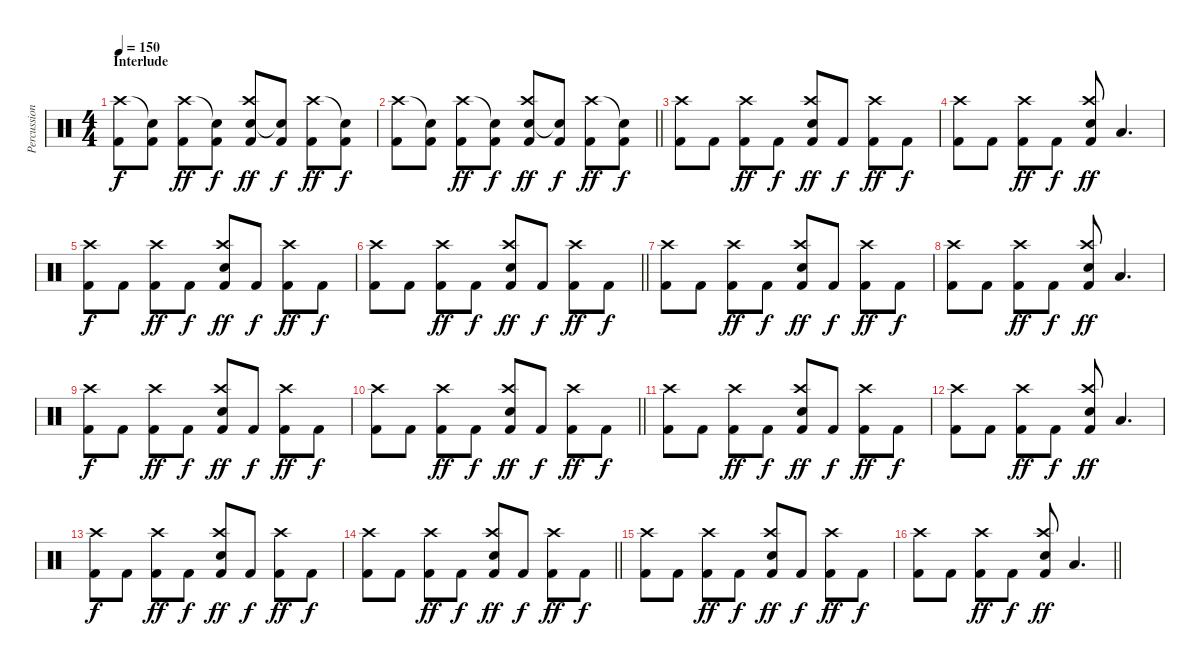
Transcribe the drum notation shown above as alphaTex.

\track ("Percussion" "Percussion") {instrument percussion}
\staff {score}
\articulation defaults
\ts (4 4)
\section ("" "Interlude")
\tempo 150
\clef neutral
\ks c
("Kick (hit) 2" "Crash high (hit)").8{dy f} ("Kick (hit) 2" "Snare (hit)"{t}).8 ("Kick (hit) 2" "Crash high (hit)").8{dy ff} ("Kick (hit) 2" "Snare (hit)"{t}).8{dy f} ("Kick (hit) 2" "Snare (hit) 2" "Crash high (hit)").8{dy ff} ("Kick (hit) 2" "Snare (hit)"{t}).8{dy f} ("Kick (hit) 2" "Crash high (hit)").8{dy ff} ("Kick (hit) 2" "Snare (hit)"{t}).8{dy f} |
\barLineRight lightlight
("Kick (hit) 2" "Crash high (hit)").8 ("Kick (hit) 2" "Snare (hit)"{t}).8 ("Kick (hit) 2" "Crash high (hit)").8{dy ff} ("Kick (hit) 2" "Snare (hit)"{t}).8{dy f} ("Kick (hit) 2" "Snare (hit) 2" "Crash high (hit)").8{dy ff} ("Kick (hit) 2" "Snare (hit)"{t}).8{dy f} ("Kick (hit) 2" "Crash high (hit)").8{dy ff} ("Kick (hit) 2" "Snare (hit)"{t}).8{dy f} |
("Kick (hit) 2" "Crash high (hit)").8 "Kick (hit) 2".8 ("Kick (hit) 2" "Crash high (hit)").8{dy ff} "Kick (hit) 2".8{dy f} ("Kick (hit) 2" "Snare (hit) 2" "Crash high (hit)").8{dy ff} "Kick (hit) 2".8{dy f} ("Kick (hit) 2" "Crash high (hit)").8{dy ff} "Kick (hit) 2".8{dy f} |
("Kick (hit) 2" "Crash high (hit)").8 "Kick (hit) 2".8 ("Kick (hit) 2" "Crash high (hit)").8{dy ff} "Kick (hit) 2".8{dy f} ("Kick (hit) 2" "Snare (hit) 2" "Crash high (hit)").8{dy ff} "Low Floor Tom (hit)".4{d} |
("Kick (hit) 2" "Crash high (hit)").8{dy f} "Kick (hit) 2".8 ("Kick (hit) 2" "Crash high (hit)").8{dy ff} "Kick (hit) 2".8{dy f} ("Kick (hit) 2" "Snare (hit) 2" "Crash high (hit)").8{dy ff} "Kick (hit) 2".8{dy f} ("Kick (hit) 2" "Crash high (hit)").8{dy ff} "Kick (hit) 2".8{dy f} |
\barLineRight lightlight
("Kick (hit) 2" "Crash high (hit)").8 "Kick (hit) 2".8 ("Kick (hit) 2" "Crash high (hit)").8{dy ff} "Kick (hit) 2".8{dy f} ("Kick (hit) 2" "Snare (hit) 2" "Crash high (hit)").8{dy ff} "Kick (hit) 2".8{dy f} ("Kick (hit) 2" "Crash high (hit)").8{dy ff} "Kick (hit) 2".8{dy f} |
("Kick (hit) 2" "Crash high (hit)").8 "Kick (hit) 2".8 ("Kick (hit) 2" "Crash high (hit)").8{dy ff} "Kick (hit) 2".8{dy f} ("Kick (hit) 2" "Snare (hit) 2" "Crash high (hit)").8{dy ff} "Kick (hit) 2".8{dy f} ("Kick (hit) 2" "Crash high (hit)").8{dy ff} "Kick (hit) 2".8{dy f} |
("Kick (hit) 2" "Crash high (hit)").8 "Kick (hit) 2".8 ("Kick (hit) 2" "Crash high (hit)").8{dy ff} "Kick (hit) 2".8{dy f} ("Kick (hit) 2" "Snare (hit) 2" "Crash high (hit)").8{dy ff} "Low Floor Tom (hit)".4{d} |
("Kick (hit) 2" "Crash high (hit)").8{dy f} "Kick (hit) 2".8 ("Kick (hit) 2" "Crash high (hit)").8{dy ff} "Kick (hit) 2".8{dy f} ("Kick (hit) 2" "Snare (hit) 2" "Crash high (hit)").8{dy ff} "Kick (hit) 2".8{dy f} ("Kick (hit) 2" "Crash high (hit)").8{dy ff} "Kick (hit) 2".8{dy f} |
\barLineRight lightlight
("Kick (hit) 2" "Crash high (hit)").8 "Kick (hit) 2".8 ("Kick (hit) 2" "Crash high (hit)").8{dy ff} "Kick (hit) 2".8{dy f} ("Kick (hit) 2" "Snare (hit) 2" "Crash high (hit)").8{dy ff} "Kick (hit) 2".8{dy f} ("Kick (hit) 2" "Crash high (hit)").8{dy ff} "Kick (hit) 2".8{dy f} |
("Kick (hit) 2" "Crash high (hit)").8 "Kick (hit) 2".8 ("Kick (hit) 2" "Crash high (hit)").8{dy ff} "Kick (hit) 2".8{dy f} ("Kick (hit) 2" "Snare (hit) 2" "Crash high (hit)").8{dy ff} "Kick (hit) 2".8{dy f} ("Kick (hit) 2" "Crash high (hit)").8{dy ff} "Kick (hit) 2".8{dy f} |
("Kick (hit) 2" "Crash high (hit)").8 "Kick (hit) 2".8 ("Kick (hit) 2" "Crash high (hit)").8{dy ff} "Kick (hit) 2".8{dy f} ("Kick (hit) 2" "Snare (hit) 2" "Crash high (hit)").8{dy ff} "Low Floor Tom (hit)".4{d} |
("Kick (hit) 2" "Crash high (hit)").8{dy f} "Kick (hit) 2".8 ("Kick (hit) 2" "Crash high (hit)").8{dy ff} "Kick (hit) 2".8{dy f} ("Kick (hit) 2" "Snare (hit) 2" "Crash high (hit)").8{dy ff} "Kick (hit) 2".8{dy f} ("Kick (hit) 2" "Crash high (hit)").8{dy ff} "Kick (hit) 2".8{dy f} |
\barLineRight lightlight
("Kick (hit) 2" "Crash high (hit)").8 "Kick (hit) 2".8 ("Kick (hit) 2" "Crash high (hit)").8{dy ff} "Kick (hit) 2".8{dy f} ("Kick (hit) 2" "Snare (hit) 2" "Crash high (hit)").8{dy ff} "Kick (hit) 2".8{dy f} ("Kick (hit) 2" "Crash high (hit)").8{dy ff} "Kick (hit) 2".8{dy f} |
("Kick (hit) 2" "Crash high (hit)").8 "Kick (hit) 2".8 ("Kick (hit) 2" "Crash high (hit)").8{dy ff} "Kick (hit) 2".8{dy f} ("Kick (hit) 2" "Snare (hit) 2" "Crash high (hit)").8{dy ff} "Kick (hit) 2".8{dy f} ("Kick (hit) 2" "Crash high (hit)").8{dy ff} "Kick (hit) 2".8{dy f} |
\barLineRight lightlight
("Kick (hit) 2" "Crash high (hit)").8 "Kick (hit) 2".8 ("Kick (hit) 2" "Crash high (hit)").8{dy ff} "Kick (hit) 2".8{dy f} ("Kick (hit) 2" "Snare (hit) 2" "Crash high (hit)").8{dy ff} "Low Floor Tom (hit)".4{d}
